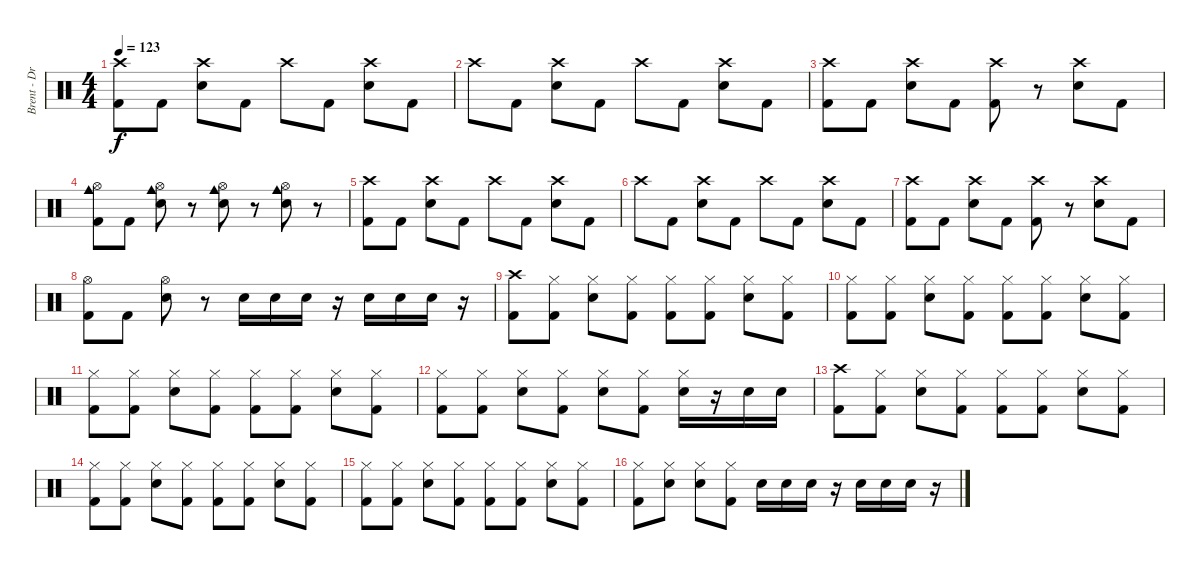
\track ("Brent - Drums" "Brent - Dr") {instrument percussion}
\staff {score}
\articulation defaults
\ts (4 4)
\tempo 123
\clef neutral
\ks c
("Crash high (hit)" "Kick (hit) 2").8{dy f} "Kick (hit) 2".8 ("Crash high (hit)" "Snare (hit) 2").8 "Kick (hit) 2".8 "Crash high (hit)".8 "Kick (hit) 2".8 ("Crash high (hit)" "Snare (hit) 2").8 "Kick (hit) 2".8 |
"Crash high (hit)".8 "Kick (hit) 2".8 ("Crash high (hit)" "Snare (hit) 2").8 "Kick (hit) 2".8 "Crash high (hit)".8 "Kick (hit) 2".8 ("Crash high (hit)" "Snare (hit) 2").8 "Kick (hit) 2".8 |
("Crash high (hit)" "Kick (hit) 2").8 "Kick (hit) 2".8 ("Crash high (hit)" "Snare (hit) 2").8 "Kick (hit) 2".8 ("Crash high (hit)" "Kick (hit) 2").8 r.8 ("Crash high (hit)" "Snare (hit) 2").8 "Kick (hit) 2".8 |
("Hi-Hat (open)" "Cowbell medium (hit)" "Kick (hit) 2").8 "Kick (hit) 2".8 ("Hi-Hat (open)" "Snare (hit) 2" "Cowbell medium (hit)").8 r.8 ("Hi-Hat (open)" "Snare (hit) 2" "Cowbell medium (hit)").8 r.8 ("Hi-Hat (open)" "Snare (hit) 2" "Cowbell medium (hit)").8 r.8 |
("Crash high (hit)" "Kick (hit) 2").8 "Kick (hit) 2".8 ("Crash high (hit)" "Snare (hit) 2").8 "Kick (hit) 2".8 "Crash high (hit)".8 "Kick (hit) 2".8 ("Crash high (hit)" "Snare (hit) 2").8 "Kick (hit) 2".8 |
"Crash high (hit)".8 "Kick (hit) 2".8 ("Crash high (hit)" "Snare (hit) 2").8 "Kick (hit) 2".8 "Crash high (hit)".8 "Kick (hit) 2".8 ("Crash high (hit)" "Snare (hit) 2").8 "Kick (hit) 2".8 |
("Crash high (hit)" "Kick (hit) 2").8 "Kick (hit) 2".8 ("Crash high (hit)" "Snare (hit) 2").8 "Kick (hit) 2".8 ("Crash high (hit)" "Kick (hit) 2").8 r.8 ("Crash high (hit)" "Snare (hit) 2").8 "Kick (hit) 2".8 |
("Hi-Hat (open)" "Kick (hit) 2").8 "Kick (hit) 2".8 ("Hi-Hat (open)" "Snare (hit) 2").8 r.8 "Snare (hit) 2".16 "Snare (hit) 2".16 "Snare (hit) 2".16 r.16 "Snare (hit) 2".16 "Snare (hit) 2".16 "Snare (hit) 2".16 r.16 |
("Crash high (hit)" "Kick (hit) 2").8 ("Hi-Hat (closed)" "Kick (hit) 2").8 ("Hi-Hat (closed)" "Snare (hit) 2").8 ("Hi-Hat (closed)" "Kick (hit) 2").8 ("Hi-Hat (closed)" "Kick (hit) 2").8 ("Hi-Hat (closed)" "Kick (hit) 2").8 ("Hi-Hat (closed)" "Snare (hit) 2").8 ("Hi-Hat (closed)" "Kick (hit) 2").8 |
("Hi-Hat (closed)" "Kick (hit) 2").8 ("Hi-Hat (closed)" "Kick (hit) 2").8 ("Hi-Hat (closed)" "Snare (hit) 2").8 ("Hi-Hat (closed)" "Kick (hit) 2").8 ("Hi-Hat (closed)" "Kick (hit) 2").8 ("Hi-Hat (closed)" "Kick (hit) 2").8 ("Hi-Hat (closed)" "Snare (hit) 2").8 ("Hi-Hat (closed)" "Kick (hit) 2").8 |
("Hi-Hat (closed)" "Kick (hit) 2").8 ("Hi-Hat (closed)" "Kick (hit) 2").8 ("Hi-Hat (closed)" "Snare (hit) 2").8 ("Hi-Hat (closed)" "Kick (hit) 2").8 ("Hi-Hat (closed)" "Kick (hit) 2").8 ("Hi-Hat (closed)" "Kick (hit) 2").8 ("Hi-Hat (closed)" "Snare (hit) 2").8 ("Hi-Hat (closed)" "Kick (hit) 2").8 |
("Hi-Hat (closed)" "Kick (hit) 2").8 ("Hi-Hat (closed)" "Kick (hit) 2").8 ("Hi-Hat (closed)" "Snare (hit) 2").8 ("Hi-Hat (closed)" "Kick (hit) 2").8 ("Hi-Hat (closed)" "Snare (hit) 2").8 ("Hi-Hat (closed)" "Kick (hit) 2").8 ("Hi-Hat (closed)" "Snare (hit) 2").16 r.16 "Snare (hit) 2".16 "Snare (hit) 2".16 |
("Crash high (hit)" "Kick (hit) 2").8 ("Hi-Hat (closed)" "Kick (hit) 2").8 ("Hi-Hat (closed)" "Snare (hit) 2").8 ("Hi-Hat (closed)" "Kick (hit) 2").8 ("Hi-Hat (closed)" "Kick (hit) 2").8 ("Hi-Hat (closed)" "Kick (hit) 2").8 ("Hi-Hat (closed)" "Snare (hit) 2").8 ("Hi-Hat (closed)" "Kick (hit) 2").8 |
("Hi-Hat (closed)" "Kick (hit) 2").8 ("Hi-Hat (closed)" "Kick (hit) 2").8 ("Hi-Hat (closed)" "Snare (hit) 2").8 ("Hi-Hat (closed)" "Kick (hit) 2").8 ("Hi-Hat (closed)" "Kick (hit) 2").8 ("Hi-Hat (closed)" "Kick (hit) 2").8 ("Hi-Hat (closed)" "Snare (hit) 2").8 ("Hi-Hat (closed)" "Kick (hit) 2").8 |
("Hi-Hat (closed)" "Kick (hit) 2").8 ("Hi-Hat (closed)" "Kick (hit) 2").8 ("Hi-Hat (closed)" "Snare (hit) 2").8 ("Hi-Hat (closed)" "Kick (hit) 2").8 ("Hi-Hat (closed)" "Kick (hit) 2").8 ("Hi-Hat (closed)" "Kick (hit) 2").8 ("Hi-Hat (closed)" "Snare (hit) 2").8 ("Hi-Hat (closed)" "Kick (hit) 2").8 |
("Hi-Hat (closed)" "Kick (hit) 2").8 ("Hi-Hat (closed)" "Snare (hit) 2").8 ("Hi-Hat (closed)" "Snare (hit) 2").8 ("Hi-Hat (closed)" "Kick (hit) 2").8 "Snare (hit) 2".16 "Snare (hit) 2".16 "Snare (hit) 2".16 r.16 "Snare (hit) 2".16 "Snare (hit) 2".16 "Snare (hit) 2".16 r.16
